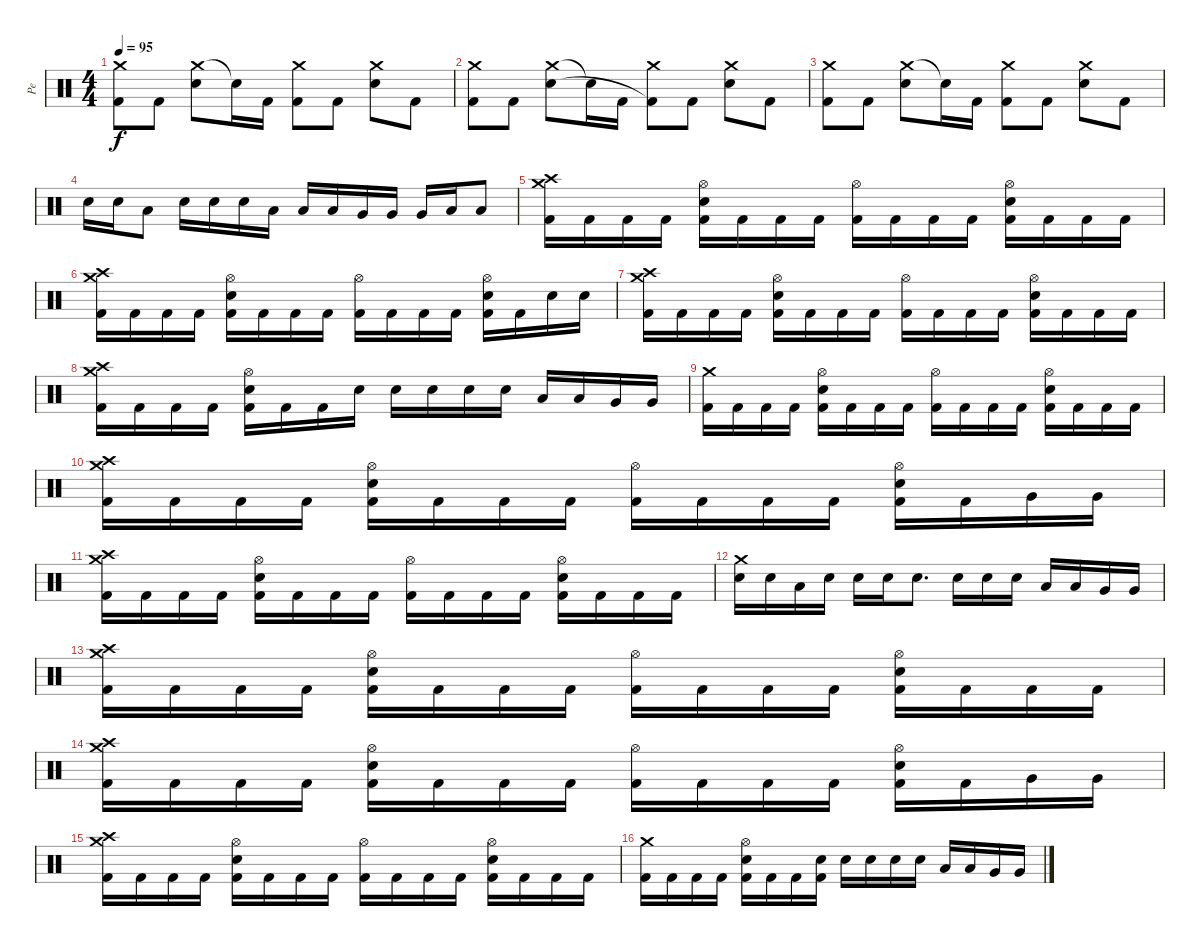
\track ("Pe" "Pe") {instrument percussion}
\staff {score}
\articulation defaults
\ts (4 4)
\tempo 95
\clef neutral
\ks c
("Crash medium (hit)" "Kick (hit) 2").8{dy f} "Kick (hit) 2".8 ("Crash medium (hit)" "Electric Snare (hit)").8 "Snare (hit)"{t}.16 "Kick (hit) 2".16 ("Crash medium (hit)" "Kick (hit) 2").8 "Kick (hit) 2".8 ("Crash medium (hit)" "Electric Snare (hit)").8 "Kick (hit) 2".8 |
("Crash medium (hit)" "Kick (hit) 2").8 "Kick (hit) 2".8 ("Crash medium (hit)" "Electric Snare (hit)").8 "Snare (hit)"{t}.16 "Kick (hit) 2".16 ("Crash medium (hit)" "Kick (hit) 2"{t}).8 "Kick (hit) 2".8 ("Crash medium (hit)" "Electric Snare (hit)").8 "Kick (hit) 2".8 |
("Crash medium (hit)" "Kick (hit) 2").8 "Kick (hit) 2".8 ("Crash medium (hit)" "Electric Snare (hit)").8 "Snare (hit)"{t}.16 "Kick (hit) 2".16 ("Crash medium (hit)" "Kick (hit) 2").8 "Kick (hit) 2".8 ("Crash medium (hit)" "Electric Snare (hit)").8 "Kick (hit) 2".8 |
"Electric Snare (hit)".16 "Electric Snare (hit)".16 "Low Tom (hit)".8 "Electric Snare (hit)".16 "Electric Snare (hit)".16 "Electric Snare (hit)".16 "Low Tom (hit)".16 "Low Tom (hit)".16 "Low Tom (hit)".16 "Very Low Tom (hit)".16 "Very Low Tom (hit)".16 "Very Low Tom (hit)".16 "Low Floor Tom (hit)".16 "Low Floor Tom (hit)".8 |
("Crash medium (hit)" "Crash high (hit)" "Kick (hit) 2").16 "Kick (hit) 2".16 "Kick (hit) 2".16 "Kick (hit) 2".16 ("Hi-Hat (open)" "Electric Snare (hit)" "Kick (hit) 2").16 "Kick (hit) 2".16 "Kick (hit) 2".16 "Kick (hit) 2".16 ("Hi-Hat (open)" "Kick (hit) 2").16 "Kick (hit) 2".16 "Kick (hit) 2".16 "Kick (hit) 2".16 ("Hi-Hat (open)" "Electric Snare (hit)" "Kick (hit) 2").16 "Kick (hit) 2".16 "Kick (hit) 2".16 "Kick (hit) 2".16 |
("Crash medium (hit)" "Crash high (hit)" "Kick (hit) 2").16 "Kick (hit) 2".16 "Kick (hit) 2".16 "Kick (hit) 2".16 ("Hi-Hat (open)" "Electric Snare (hit)" "Kick (hit) 2").16 "Kick (hit) 2".16 "Kick (hit) 2".16 "Kick (hit) 2".16 ("Hi-Hat (open)" "Kick (hit) 2").16 "Kick (hit) 2".16 "Kick (hit) 2".16 "Kick (hit) 2".16 ("Hi-Hat (open)" "Electric Snare (hit)" "Kick (hit) 2").16 "Kick (hit) 2".16 "Electric Snare (hit)".16 "Electric Snare (hit)".16 |
("Crash medium (hit)" "Crash high (hit)" "Kick (hit) 2").16 "Kick (hit) 2".16 "Kick (hit) 2".16 "Kick (hit) 2".16 ("Hi-Hat (open)" "Electric Snare (hit)" "Kick (hit) 2").16 "Kick (hit) 2".16 "Kick (hit) 2".16 "Kick (hit) 2".16 ("Hi-Hat (open)" "Kick (hit) 2").16 "Kick (hit) 2".16 "Kick (hit) 2".16 "Kick (hit) 2".16 ("Hi-Hat (open)" "Electric Snare (hit)" "Kick (hit) 2").16 "Kick (hit) 2".16 "Kick (hit) 2".16 "Kick (hit) 2".16 |
("Crash medium (hit)" "Crash high (hit)" "Kick (hit) 2").16 "Kick (hit) 2".16 "Kick (hit) 2".16 "Kick (hit) 2".16 ("Hi-Hat (open)" "Electric Snare (hit)" "Kick (hit) 2").16 "Kick (hit) 2".16 "Kick (hit) 2".16 "Electric Snare (hit)".16 "Electric Snare (hit)".16 "Electric Snare (hit)".16 "Electric Snare (hit)".16 "Electric Snare (hit)".16 "Low Tom (hit)".16 "Low Tom (hit)".16 "Very Low Tom (hit)".16 "Very Low Tom (hit)".16 |
("Crash medium (hit)" "Kick (hit) 2").16 "Kick (hit) 2".16 "Kick (hit) 2".16 "Kick (hit) 2".16 ("Hi-Hat (open)" "Electric Snare (hit)" "Kick (hit) 2").16 "Kick (hit) 2".16 "Kick (hit) 2".16 "Kick (hit) 2".16 ("Hi-Hat (open)" "Kick (hit) 2").16 "Kick (hit) 2".16 "Kick (hit) 2".16 "Kick (hit) 2".16 ("Hi-Hat (open)" "Electric Snare (hit)" "Kick (hit) 2").16 "Kick (hit) 2".16 "Kick (hit) 2".16 "Kick (hit) 2".16 |
("Crash medium (hit)" "Crash high (hit)" "Kick (hit) 2").16 "Kick (hit) 2".16 "Kick (hit) 2".16 "Kick (hit) 2".16 ("Hi-Hat (open)" "Electric Snare (hit)" "Kick (hit) 2").16 "Kick (hit) 2".16 "Kick (hit) 2".16 "Kick (hit) 2".16 ("Hi-Hat (open)" "Kick (hit) 2").16 "Kick (hit) 2".16 "Kick (hit) 2".16 "Kick (hit) 2".16 ("Hi-Hat (open)" "Electric Snare (hit)" "Kick (hit) 2").16 "Kick (hit) 2".16 "Very Low Tom (hit)".16 "Very Low Tom (hit)".16 |
("Crash medium (hit)" "Crash high (hit)" "Kick (hit) 2").16 "Kick (hit) 2".16 "Kick (hit) 2".16 "Kick (hit) 2".16 ("Hi-Hat (open)" "Electric Snare (hit)" "Kick (hit) 2").16 "Kick (hit) 2".16 "Kick (hit) 2".16 "Kick (hit) 2".16 ("Hi-Hat (open)" "Kick (hit) 2").16 "Kick (hit) 2".16 "Kick (hit) 2".16 "Kick (hit) 2".16 ("Hi-Hat (open)" "Electric Snare (hit)" "Kick (hit) 2").16 "Kick (hit) 2".16 "Kick (hit) 2".16 "Kick (hit) 2".16 |
("Crash medium (hit)" "Electric Snare (hit)").16 "Electric Snare (hit)".16 "Low Tom (hit)".16 "Electric Snare (hit)".16 "Electric Snare (hit)".16 "Electric Snare (hit)".16 "Electric Snare (hit)".8{d} "Electric Snare (hit)".16 "Electric Snare (hit)".16 "Electric Snare (hit)".16 "Low Tom (hit)".16 "Low Tom (hit)".16 "Very Low Tom (hit)".16 "Very Low Tom (hit)".16 |
("Crash medium (hit)" "Crash high (hit)" "Kick (hit) 2").16 "Kick (hit) 2".16 "Kick (hit) 2".16 "Kick (hit) 2".16 ("Hi-Hat (open)" "Electric Snare (hit)" "Kick (hit) 2").16 "Kick (hit) 2".16 "Kick (hit) 2".16 "Kick (hit) 2".16 ("Hi-Hat (open)" "Kick (hit) 2").16 "Kick (hit) 2".16 "Kick (hit) 2".16 "Kick (hit) 2".16 ("Hi-Hat (open)" "Electric Snare (hit)" "Kick (hit) 2").16 "Kick (hit) 2".16 "Kick (hit) 2".16 "Kick (hit) 2".16 |
("Crash medium (hit)" "Crash high (hit)" "Kick (hit) 2").16 "Kick (hit) 2".16 "Kick (hit) 2".16 "Kick (hit) 2".16 ("Hi-Hat (open)" "Electric Snare (hit)" "Kick (hit) 2").16 "Kick (hit) 2".16 "Kick (hit) 2".16 "Kick (hit) 2".16 ("Hi-Hat (open)" "Kick (hit) 2").16 "Kick (hit) 2".16 "Kick (hit) 2".16 "Kick (hit) 2".16 ("Hi-Hat (open)" "Electric Snare (hit)" "Kick (hit) 2").16 "Kick (hit) 2".16 "Very Low Tom (hit)".16 "Very Low Tom (hit)".16 |
("Crash medium (hit)" "Crash high (hit)" "Kick (hit) 2").16 "Kick (hit) 2".16 "Kick (hit) 2".16 "Kick (hit) 2".16 ("Hi-Hat (open)" "Electric Snare (hit)" "Kick (hit) 2").16 "Kick (hit) 2".16 "Kick (hit) 2".16 "Kick (hit) 2".16 ("Hi-Hat (open)" "Kick (hit) 2").16 "Kick (hit) 2".16 "Kick (hit) 2".16 "Kick (hit) 2".16 ("Hi-Hat (open)" "Electric Snare (hit)" "Kick (hit) 2").16 "Kick (hit) 2".16 "Kick (hit) 2".16 "Kick (hit) 2".16 |
("Crash medium (hit)" "Kick (hit) 2").16 "Kick (hit) 2".16 "Kick (hit) 2".16 "Kick (hit) 2".16 ("Hi-Hat (open)" "Electric Snare (hit)" "Kick (hit) 2").16 "Kick (hit) 2".16 "Kick (hit) 2".16 ("Electric Snare (hit)" "Kick (hit) 2").16 "Electric Snare (hit)".16 "Electric Snare (hit)".16 "Electric Snare (hit)".16 "Electric Snare (hit)".16 "Low Tom (hit)".16 "Low Tom (hit)".16 "Very Low Tom (hit)".16 "Very Low Tom (hit)".16
